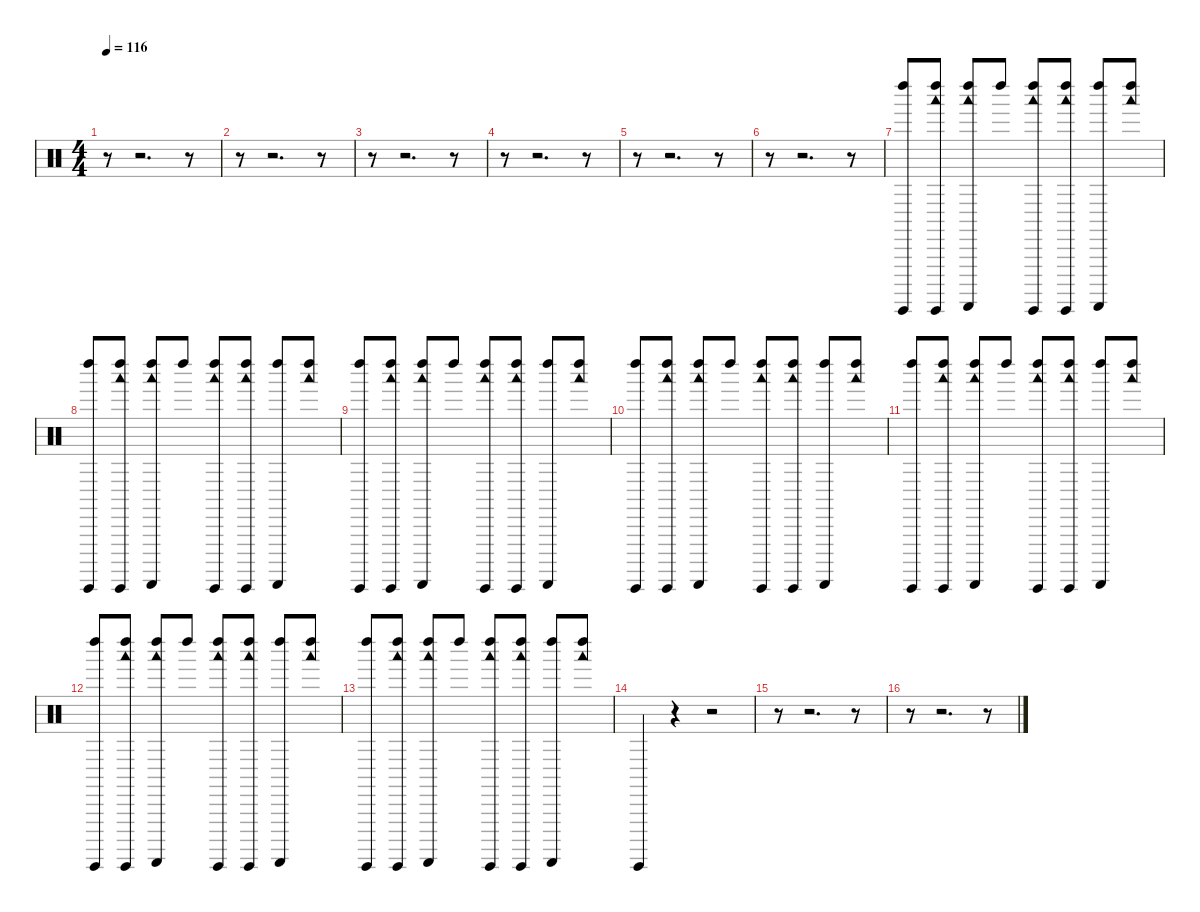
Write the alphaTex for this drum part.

\defaultSystemsLayout 4
\hideDynamics
\bracketExtendMode nobrackets
\singleTrackTrackNamePolicy hidden
\multiTrackTrackNamePolicy hidden
\firstSystemTrackNameMode fullname
\firstSystemTrackNameOrientation horizontal
\otherSystemsTrackNameOrientation horizontal
\track ("Percussions" "drm.") {instrument percussion}
\staff {score}
\articulation defaults
\ts (4 4)
\tempo 116
\clef neutral
\ks c
r.8{dy f beam Down} r.2{d beam Down} r.8{beam Down} |
r.8{beam Down} r.2{d beam Down} r.8{beam Down} |
r.8{beam Down} r.2{d beam Down} r.8{beam Down} |
r.8{beam Down} r.2{d beam Down} r.8{beam Down} |
r.8{beam Down} r.2{d beam Down} r.8{beam Down} |
r.8{beam Down} r.2{d beam Down} r.8{beam Down} |
("Guiro (hit)" "Left Maraca (hit)").8{beam Up} ("Guiro (hit)" "Left Maraca (hit)" "Woodblock low (hit)").8{beam Up} ("Guiro (scrap-return)" "Left Maraca (hit)" "Woodblock low (hit)").8{beam Up} "Left Maraca (hit)".8{beam Up} ("Guiro (hit)" "Left Maraca (hit)" "Woodblock low (hit)").8{beam Up} ("Guiro (hit)" "Left Maraca (hit)" "Woodblock low (hit)").8{beam Up} ("Guiro (scrap-return)" "Left Maraca (hit)").8{beam Up} ("Left Maraca (hit)" "Woodblock low (hit)").8{beam Up} |
("Guiro (hit)" "Left Maraca (hit)").8{beam Up} ("Guiro (hit)" "Left Maraca (hit)" "Woodblock low (hit)").8{beam Up} ("Guiro (scrap-return)" "Left Maraca (hit)" "Woodblock low (hit)").8{beam Up} "Left Maraca (hit)".8{beam Up} ("Guiro (hit)" "Left Maraca (hit)" "Woodblock low (hit)").8{beam Up} ("Guiro (hit)" "Left Maraca (hit)" "Woodblock low (hit)").8{beam Up} ("Guiro (scrap-return)" "Left Maraca (hit)").8{beam Up} ("Left Maraca (hit)" "Woodblock low (hit)").8{beam Up} |
("Guiro (hit)" "Left Maraca (hit)").8{beam Up} ("Guiro (hit)" "Left Maraca (hit)" "Woodblock low (hit)").8{beam Up} ("Guiro (scrap-return)" "Left Maraca (hit)" "Woodblock low (hit)").8{beam Up} "Left Maraca (hit)".8{beam Up} ("Guiro (hit)" "Left Maraca (hit)" "Woodblock low (hit)").8{beam Up} ("Guiro (hit)" "Left Maraca (hit)" "Woodblock low (hit)").8{beam Up} ("Guiro (scrap-return)" "Left Maraca (hit)").8{beam Up} ("Left Maraca (hit)" "Woodblock low (hit)").8{beam Up} |
("Guiro (hit)" "Left Maraca (hit)").8{beam Up} ("Guiro (hit)" "Left Maraca (hit)" "Woodblock low (hit)").8{beam Up} ("Guiro (scrap-return)" "Left Maraca (hit)" "Woodblock low (hit)").8{beam Up} "Left Maraca (hit)".8{beam Up} ("Guiro (hit)" "Left Maraca (hit)" "Woodblock low (hit)").8{beam Up} ("Guiro (hit)" "Left Maraca (hit)" "Woodblock low (hit)").8{beam Up} ("Guiro (scrap-return)" "Left Maraca (hit)").8{beam Up} ("Left Maraca (hit)" "Woodblock low (hit)").8{beam Up} |
("Guiro (hit)" "Left Maraca (hit)").8{beam Up} ("Guiro (hit)" "Left Maraca (hit)" "Woodblock low (hit)").8{beam Up} ("Guiro (scrap-return)" "Left Maraca (hit)" "Woodblock low (hit)").8{beam Up} "Left Maraca (hit)".8{beam Up} ("Guiro (hit)" "Left Maraca (hit)" "Woodblock low (hit)").8{beam Up} ("Guiro (hit)" "Left Maraca (hit)" "Woodblock low (hit)").8{beam Up} ("Guiro (scrap-return)" "Left Maraca (hit)").8{beam Up} ("Left Maraca (hit)" "Woodblock low (hit)").8{beam Up} |
("Guiro (hit)" "Left Maraca (hit)").8{beam Up} ("Guiro (hit)" "Left Maraca (hit)" "Woodblock low (hit)").8{beam Up} ("Guiro (scrap-return)" "Left Maraca (hit)" "Woodblock low (hit)").8{beam Up} "Left Maraca (hit)".8{beam Up} ("Guiro (hit)" "Left Maraca (hit)" "Woodblock low (hit)").8{beam Up} ("Guiro (hit)" "Left Maraca (hit)" "Woodblock low (hit)").8{beam Up} ("Guiro (scrap-return)" "Left Maraca (hit)").8{beam Up} ("Left Maraca (hit)" "Woodblock low (hit)").8{beam Up} |
("Guiro (hit)" "Left Maraca (hit)").8{beam Up} ("Guiro (hit)" "Left Maraca (hit)" "Woodblock low (hit)").8{beam Up} ("Guiro (scrap-return)" "Left Maraca (hit)" "Woodblock low (hit)").8{beam Up} "Left Maraca (hit)".8{beam Up} ("Guiro (hit)" "Left Maraca (hit)" "Woodblock low (hit)").8{beam Up} ("Guiro (hit)" "Left Maraca (hit)" "Woodblock low (hit)").8{beam Up} ("Guiro (scrap-return)" "Left Maraca (hit)").8{beam Up} ("Left Maraca (hit)" "Woodblock low (hit)").8{beam Up} |
"Guiro (hit)".4{beam Up} r.4{beam Up} r.2{beam Up} |
r.8{beam Down} r.2{d beam Down} r.8{beam Down} |
r.8{beam Down} r.2{d beam Down} r.8{beam Down}
